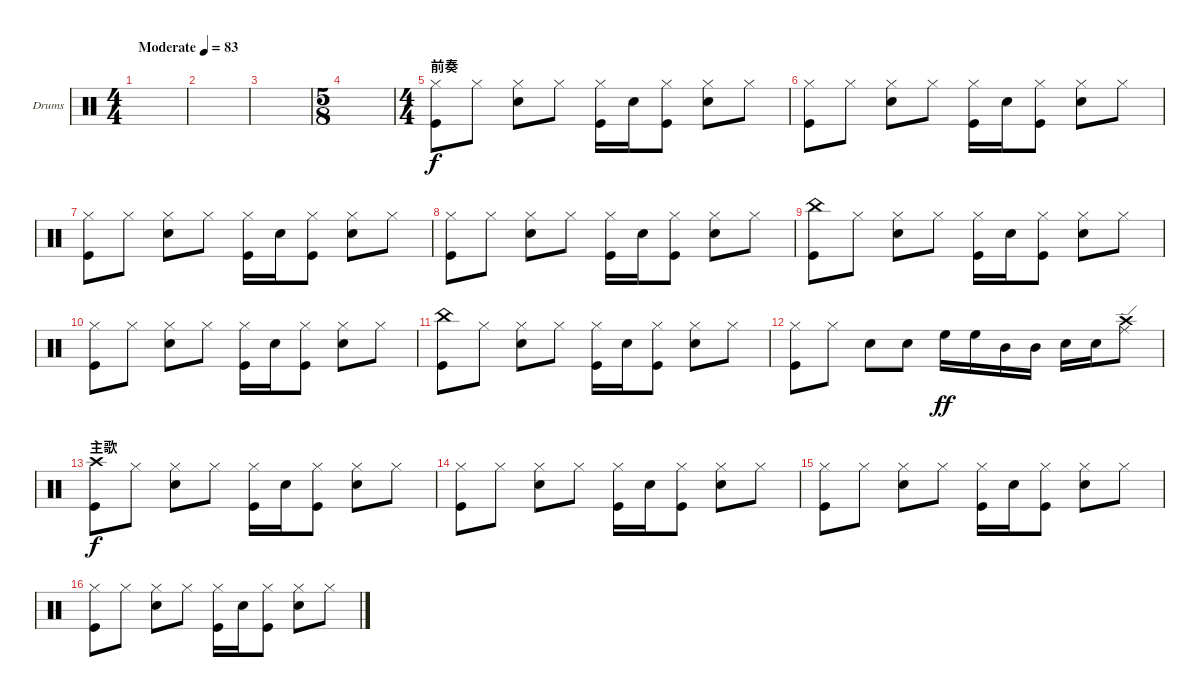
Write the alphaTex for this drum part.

\bracketExtendMode groupsimilarinstruments
\firstSystemTrackNameOrientation horizontal
\otherSystemsTrackNameOrientation horizontal
\track ("Drumkit" "Drums") {solo instrument percussion}
\staff {score}
\articulation defaults
\ts (4 4)
\beaming (8 2 2 2 2)
\tempo (83 "Moderate")
\clef neutral
\scale
0.474178
\ks c
|
\scale
0.262911 |
\scale
0.262911 |
\ts (5 8)
\beaming (8 3 2)
\scale
0.391473 |
\ts (4 4)
\beaming (8 2 2 2 2)
\section ("" "前奏")
\scale
0.391473 ("Kick (hit)" "Hi-Hat (closed)").8 "Hi-Hat (closed)".8 ("Snare (hit) 2" "Hi-Hat (closed)").8 "Hi-Hat (closed)".8 ("Kick (hit)" "Hi-Hat (closed)").16 "Snare (hit) 2".16 ("Kick (hit)" "Hi-Hat (closed)").8 ("Snare (hit) 2" "Hi-Hat (closed)").8 "Hi-Hat (closed)".8 |
\scale
0.217054 ("Kick (hit)" "Hi-Hat (closed)").8 "Hi-Hat (closed)".8 ("Snare (hit) 2" "Hi-Hat (closed)").8 "Hi-Hat (closed)".8 ("Kick (hit)" "Hi-Hat (closed)").16 "Snare (hit) 2".16 ("Kick (hit)" "Hi-Hat (closed)").8 ("Snare (hit) 2" "Hi-Hat (closed)").8 "Hi-Hat (closed)".8 |
\scale
0.333333 ("Kick (hit)" "Hi-Hat (closed)").8 "Hi-Hat (closed)".8 ("Snare (hit) 2" "Hi-Hat (closed)").8 "Hi-Hat (closed)".8 ("Kick (hit)" "Hi-Hat (closed)").16 "Snare (hit) 2".16 ("Kick (hit)" "Hi-Hat (closed)").8 ("Snare (hit) 2" "Hi-Hat (closed)").8 "Hi-Hat (closed)".8 |
\scale
0.333333 ("Kick (hit)" "Hi-Hat (closed)").8 "Hi-Hat (closed)".8 ("Snare (hit) 2" "Hi-Hat (closed)").8 "Hi-Hat (closed)".8 ("Kick (hit)" "Hi-Hat (closed)").16 "Snare (hit) 2".16 ("Kick (hit)" "Hi-Hat (closed)").8 ("Snare (hit) 2" "Hi-Hat (closed)").8 "Hi-Hat (closed)".8 |
\scale
0.333333 ("Kick (hit)" "China (hit)").8 "Hi-Hat (closed)".8 ("Snare (hit) 2" "Hi-Hat (closed)").8 "Hi-Hat (closed)".8 ("Kick (hit)" "Hi-Hat (closed)").16 "Snare (hit) 2".16 ("Kick (hit)" "Hi-Hat (closed)").8 ("Snare (hit) 2" "Hi-Hat (closed)").8 "Hi-Hat (closed)".8 |
\scale
0.333333 ("Kick (hit)" "Hi-Hat (closed)").8 "Hi-Hat (closed)".8 ("Snare (hit) 2" "Hi-Hat (closed)").8 "Hi-Hat (closed)".8 ("Kick (hit)" "Hi-Hat (closed)").16 "Snare (hit) 2".16 ("Kick (hit)" "Hi-Hat (closed)").8 ("Snare (hit) 2" "Hi-Hat (closed)").8 "Hi-Hat (closed)".8 |
\scale
0.333333 ("Kick (hit)" "China (hit)").8 "Hi-Hat (closed)".8 ("Snare (hit) 2" "Hi-Hat (closed)").8 "Hi-Hat (closed)".8 ("Kick (hit)" "Hi-Hat (closed)").16 "Snare (hit) 2".16 ("Kick (hit)" "Hi-Hat (closed)").8 ("Snare (hit) 2" "Hi-Hat (closed)").8 "Hi-Hat (closed)".8 |
\scale
0.333333 ("Kick (hit)" "Hi-Hat (closed)").8 "Hi-Hat (closed)".8 "Snare (hit) 2".8 "Snare (hit) 2".8 "High Floor Tom (hit)".16{dy ff} "High Floor Tom (hit)".16 "Mid Tom (hit)".16 "Mid Tom (hit)".16 "Snare (hit) 2".16 "Snare (hit) 2".16 ("Crash high (hit)" "Ride (edge)").8 |
\section ("" "主歌")
\scale
0.333333 ("Kick (hit)" "Crash high (hit)").8{dy f} "Hi-Hat (closed)".8 ("Snare (hit) 2" "Hi-Hat (closed)").8 "Hi-Hat (closed)".8 ("Kick (hit)" "Hi-Hat (closed)").16 "Snare (hit) 2".16 ("Kick (hit)" "Hi-Hat (closed)").8 ("Snare (hit) 2" "Hi-Hat (closed)").8 "Hi-Hat (closed)".8 |
\scale
0.333333 ("Kick (hit)" "Hi-Hat (closed)").8 "Hi-Hat (closed)".8 ("Snare (hit) 2" "Hi-Hat (closed)").8 "Hi-Hat (closed)".8 ("Kick (hit)" "Hi-Hat (closed)").16 "Snare (hit) 2".16 ("Kick (hit)" "Hi-Hat (closed)").8 ("Snare (hit) 2" "Hi-Hat (closed)").8 "Hi-Hat (closed)".8 |
\scale
0.333333 ("Kick (hit)" "Hi-Hat (closed)").8 "Hi-Hat (closed)".8 ("Snare (hit) 2" "Hi-Hat (closed)").8 "Hi-Hat (closed)".8 ("Kick (hit)" "Hi-Hat (closed)").16 "Snare (hit) 2".16 ("Kick (hit)" "Hi-Hat (closed)").8 ("Snare (hit) 2" "Hi-Hat (closed)").8 "Hi-Hat (closed)".8 |
\scale
0.333333 ("Kick (hit)" "Hi-Hat (closed)").8 "Hi-Hat (closed)".8 ("Snare (hit) 2" "Hi-Hat (closed)").8 "Hi-Hat (closed)".8 ("Kick (hit)" "Hi-Hat (closed)").16 "Snare (hit) 2".16 ("Kick (hit)" "Hi-Hat (closed)").8 ("Snare (hit) 2" "Hi-Hat (closed)").8 "Hi-Hat (closed)".8
